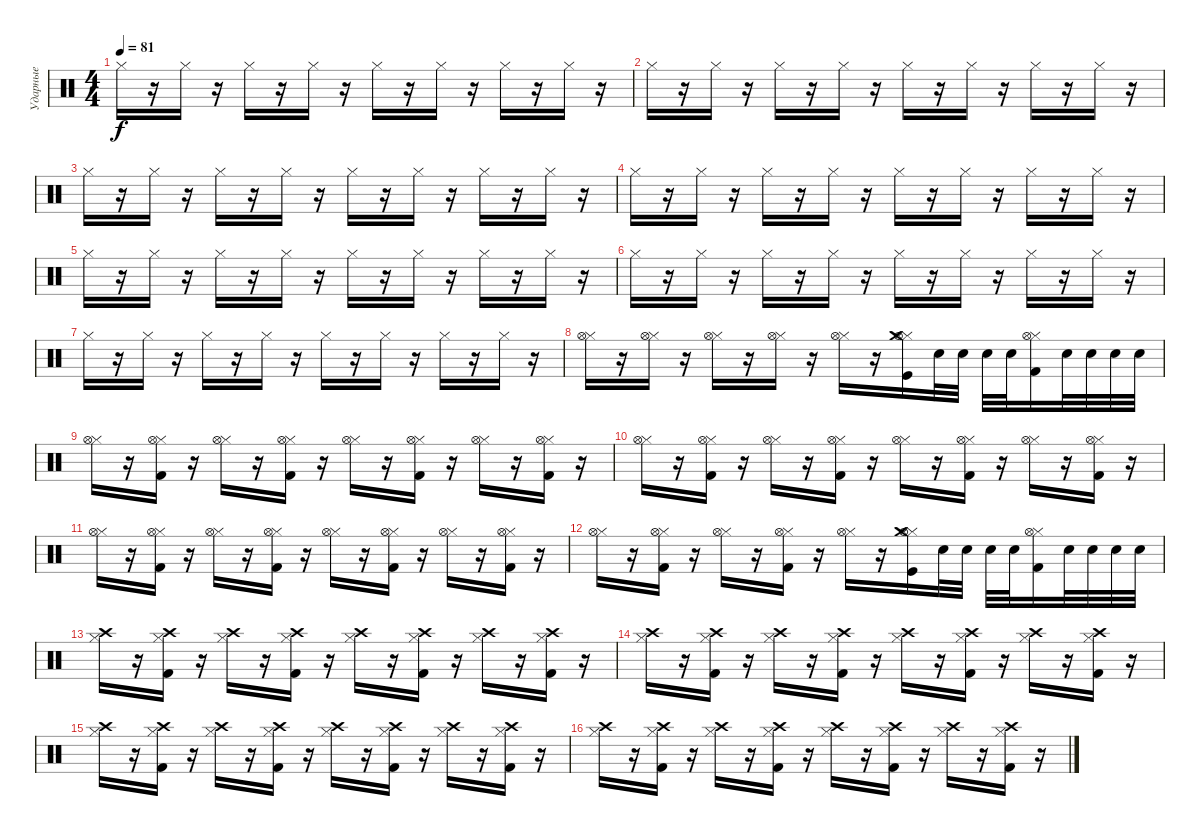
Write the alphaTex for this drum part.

\track ("Ударные" "Ударные") {instrument percussion}
\staff {score}
\articulation defaults
\ts (4 4)
\tempo 81
\clef neutral
\ks c "Hi-Hat (closed)".16{dy f}
r.16 "Hi-Hat (closed)".16 r.16 "Hi-Hat (closed)".16 r.16 "Hi-Hat (closed)".16 r.16 "Hi-Hat (closed)".16 r.16 "Hi-Hat (closed)".16 r.16 "Hi-Hat (closed)".16 r.16 "Hi-Hat (closed)".16 r.16 |
"Hi-Hat (closed)".16 r.16 "Hi-Hat (closed)".16 r.16 "Hi-Hat (closed)".16 r.16 "Hi-Hat (closed)".16 r.16 "Hi-Hat (closed)".16 r.16 "Hi-Hat (closed)".16 r.16 "Hi-Hat (closed)".16 r.16 "Hi-Hat (closed)".16 r.16 |
"Hi-Hat (closed)".16 r.16 "Hi-Hat (closed)".16 r.16 "Hi-Hat (closed)".16 r.16 "Hi-Hat (closed)".16 r.16 "Hi-Hat (closed)".16 r.16 "Hi-Hat (closed)".16 r.16 "Hi-Hat (closed)".16 r.16 "Hi-Hat (closed)".16 r.16 |
"Hi-Hat (closed)".16 r.16 "Hi-Hat (closed)".16 r.16 "Hi-Hat (closed)".16 r.16 "Hi-Hat (closed)".16 r.16 "Hi-Hat (closed)".16 r.16 "Hi-Hat (closed)".16 r.16 "Hi-Hat (closed)".16 r.16 "Hi-Hat (closed)".16 r.16 |
"Hi-Hat (closed)".16 r.16 "Hi-Hat (closed)".16 r.16 "Hi-Hat (closed)".16 r.16 "Hi-Hat (closed)".16 r.16 "Hi-Hat (closed)".16 r.16 "Hi-Hat (closed)".16 r.16 "Hi-Hat (closed)".16 r.16 "Hi-Hat (closed)".16 r.16 |
"Hi-Hat (closed)".16 r.16 "Hi-Hat (closed)".16 r.16 "Hi-Hat (closed)".16 r.16 "Hi-Hat (closed)".16 r.16 "Hi-Hat (closed)".16 r.16 "Hi-Hat (closed)".16 r.16 "Hi-Hat (closed)".16 r.16 "Hi-Hat (closed)".16 r.16 |
"Hi-Hat (closed)".16 r.16 "Hi-Hat (closed)".16 r.16 "Hi-Hat (closed)".16 r.16 "Hi-Hat (closed)".16 r.16 "Hi-Hat (closed)".16 r.16 "Hi-Hat (closed)".16 r.16 "Hi-Hat (closed)".16 r.16 "Hi-Hat (closed)".16 r.16 |
("Hi-Hat (closed)" "Hi-Hat (open)").16 r.16 ("Hi-Hat (closed)" "Hi-Hat (open)").16 r.16 ("Hi-Hat (closed)" "Hi-Hat (open)").16 r.16 ("Hi-Hat (closed)" "Hi-Hat (open)").16 r.16 ("Hi-Hat (closed)" "Hi-Hat (open)").16 r.16 ("Hi-Hat (closed)" "Kick (hit)" "Hi-Hat (open)" "Crash medium (hit)").16 "Snare (hit) 2".32 "Snare (hit) 2".32 "Snare (hit) 2".32 "Snare (hit) 2".32 ("Hi-Hat (closed)" "Kick (hit) 2" "Hi-Hat (open)").16 "Snare (hit) 2".32 "Snare (hit) 2".32 "Snare (hit) 2".32 "Snare (hit) 2".32 |
("Hi-Hat (closed)" "Hi-Hat (open)").16 r.16 ("Hi-Hat (closed)" "Kick (hit) 2" "Hi-Hat (open)").16 r.16 ("Hi-Hat (closed)" "Hi-Hat (open)").16 r.16 ("Hi-Hat (closed)" "Kick (hit) 2" "Hi-Hat (open)").16 r.16 ("Hi-Hat (closed)" "Hi-Hat (open)").16 r.16 ("Hi-Hat (closed)" "Kick (hit) 2" "Hi-Hat (open)").16 r.16 ("Hi-Hat (closed)" "Hi-Hat (open)").16 r.16 ("Hi-Hat (closed)" "Kick (hit) 2" "Hi-Hat (open)").16 r.16 |
("Hi-Hat (closed)" "Hi-Hat (open)").16 r.16 ("Hi-Hat (closed)" "Kick (hit) 2" "Hi-Hat (open)").16 r.16 ("Hi-Hat (closed)" "Hi-Hat (open)").16 r.16 ("Hi-Hat (closed)" "Kick (hit) 2" "Hi-Hat (open)").16 r.16 ("Hi-Hat (closed)" "Hi-Hat (open)").16 r.16 ("Hi-Hat (closed)" "Kick (hit) 2" "Hi-Hat (open)").16 r.16 ("Hi-Hat (closed)" "Hi-Hat (open)").16 r.16 ("Hi-Hat (closed)" "Kick (hit) 2" "Hi-Hat (open)").16 r.16 |
("Hi-Hat (closed)" "Hi-Hat (open)").16 r.16 ("Hi-Hat (closed)" "Kick (hit) 2" "Hi-Hat (open)").16 r.16 ("Hi-Hat (closed)" "Hi-Hat (open)").16 r.16 ("Hi-Hat (closed)" "Kick (hit) 2" "Hi-Hat (open)").16 r.16 ("Hi-Hat (closed)" "Hi-Hat (open)").16 r.16 ("Hi-Hat (closed)" "Kick (hit) 2" "Hi-Hat (open)").16 r.16 ("Hi-Hat (closed)" "Hi-Hat (open)").16 r.16 ("Hi-Hat (closed)" "Kick (hit) 2" "Hi-Hat (open)").16 r.16 |
("Hi-Hat (closed)" "Hi-Hat (open)").16 r.16 ("Hi-Hat (closed)" "Kick (hit) 2" "Hi-Hat (open)").16 r.16 ("Hi-Hat (closed)" "Hi-Hat (open)").16 r.16 ("Hi-Hat (closed)" "Kick (hit) 2" "Hi-Hat (open)").16 r.16 ("Hi-Hat (closed)" "Hi-Hat (open)").16 r.16 ("Hi-Hat (closed)" "Kick (hit)" "Hi-Hat (open)" "Crash medium (hit)").16 "Snare (hit) 2".32 "Snare (hit) 2".32 "Snare (hit) 2".32 "Snare (hit) 2".32 ("Hi-Hat (closed)" "Kick (hit) 2" "Hi-Hat (open)").16 "Snare (hit) 2".32 "Snare (hit) 2".32 "Snare (hit) 2".32 "Snare (hit) 2".32 |
("Hi-Hat (closed)" "Crash high (hit)").16 r.16 ("Hi-Hat (closed)" "Kick (hit) 2" "Crash high (hit)").16 r.16 ("Hi-Hat (closed)" "Crash high (hit)").16 r.16 ("Hi-Hat (closed)" "Kick (hit) 2" "Crash high (hit)").16 r.16 ("Hi-Hat (closed)" "Crash high (hit)").16 r.16 ("Hi-Hat (closed)" "Kick (hit) 2" "Crash high (hit)").16 r.16 ("Hi-Hat (closed)" "Crash high (hit)").16 r.16 ("Hi-Hat (closed)" "Kick (hit) 2" "Crash high (hit)").16 r.16 |
("Hi-Hat (closed)" "Crash high (hit)").16 r.16 ("Hi-Hat (closed)" "Kick (hit) 2" "Crash high (hit)").16 r.16 ("Hi-Hat (closed)" "Crash high (hit)").16 r.16 ("Hi-Hat (closed)" "Kick (hit) 2" "Crash high (hit)").16 r.16 ("Hi-Hat (closed)" "Crash high (hit)").16 r.16 ("Hi-Hat (closed)" "Kick (hit) 2" "Crash high (hit)").16 r.16 ("Hi-Hat (closed)" "Crash high (hit)").16 r.16 ("Hi-Hat (closed)" "Kick (hit) 2" "Crash high (hit)").16 r.16 |
("Hi-Hat (closed)" "Crash high (hit)").16 r.16 ("Hi-Hat (closed)" "Kick (hit) 2" "Crash high (hit)").16 r.16 ("Hi-Hat (closed)" "Crash high (hit)").16 r.16 ("Hi-Hat (closed)" "Kick (hit) 2" "Crash high (hit)").16 r.16 ("Hi-Hat (closed)" "Crash high (hit)").16 r.16 ("Hi-Hat (closed)" "Kick (hit) 2" "Crash high (hit)").16 r.16 ("Hi-Hat (closed)" "Crash high (hit)").16 r.16 ("Hi-Hat (closed)" "Kick (hit) 2" "Crash high (hit)").16 r.16 |
("Hi-Hat (closed)" "Crash high (hit)").16 r.16 ("Hi-Hat (closed)" "Kick (hit) 2" "Crash high (hit)").16 r.16 ("Hi-Hat (closed)" "Crash high (hit)").16 r.16 ("Hi-Hat (closed)" "Kick (hit) 2" "Crash high (hit)").16 r.16 ("Hi-Hat (closed)" "Crash high (hit)").16 r.16 ("Hi-Hat (closed)" "Kick (hit) 2" "Crash high (hit)").16 r.16 ("Hi-Hat (closed)" "Crash high (hit)").16 r.16 ("Hi-Hat (closed)" "Kick (hit) 2" "Crash high (hit)").16 r.16
